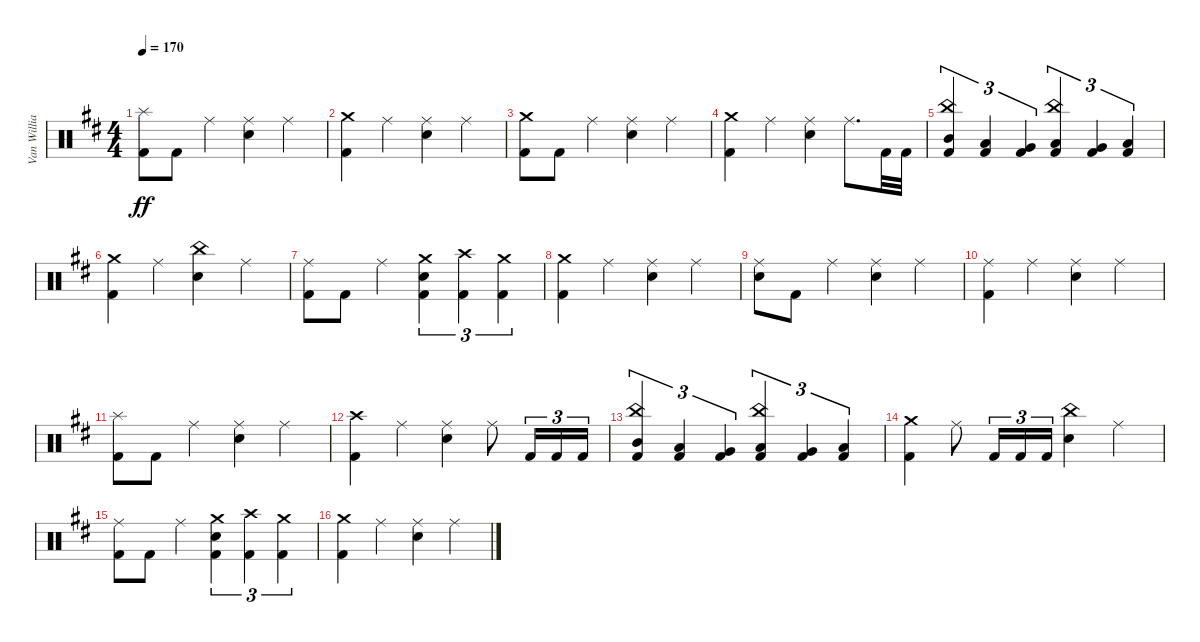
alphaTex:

\track ("Van Williams" "Van Willia") {instrument percussion}
\staff {score}
\articulation defaults
\ts (4 4)
\tempo 170
\clef neutral
\ks d
("Splash (hit)" "Kick (hit) 2").8{dy ff} "Kick (hit) 2".8 "Ride (middle)".4 ("Ride (middle)" "Electric Snare (hit)").4 "Ride (middle)".4 |
("Crash medium (hit)" "Kick (hit) 2").4 "Ride (middle)".4 ("Ride (middle)" "Electric Snare (hit)").4 "Ride (middle)".4 |
("Crash medium (hit)" "Kick (hit) 2").8 "Kick (hit) 2".8 "Ride (middle)".4 ("Ride (middle)" "Electric Snare (hit)").4 "Ride (middle)".4 |
("Crash medium (hit)" "Kick (hit) 2").4 "Ride (middle)".4 ("Ride (middle)" "Electric Snare (hit)").4 "Ride (middle)".8{d} "Kick (hit) 2".32 "Kick (hit) 2".32 |
("China (hit)" "Mid Tom (hit)" "Kick (hit) 2").4{tu (3 2)} ("Low Tom (hit)" "Kick (hit) 2").4{tu (3 2)} ("Very Low Tom (hit)" "Kick (hit) 2").4{tu (3 2)} ("China (hit)" "Low Tom (hit)" "Kick (hit) 2").4{tu (3 2)} ("Very Low Tom (hit)" "Kick (hit) 2").4{tu (3 2)} ("Low Floor Tom (hit)" "Kick (hit) 2").4{tu (3 2)} |
("Crash medium (hit)" "Kick (hit) 2").4 "Ride (middle)".4 ("China (hit)" "Electric Snare (hit)").4 "Ride (middle)".4 |
("Ride (middle)" "Kick (hit) 2").8 "Kick (hit) 2".8 "Ride (middle)".4 ("Crash medium (hit)" "Electric Snare (hit)" "Kick (hit) 2").4{tu (3 2)} ("Crash high (hit)" "Kick (hit) 2").4{tu (3 2)} ("Crash medium (hit)" "Kick (hit) 2").4{tu (3 2)} |
("Crash medium (hit)" "Kick (hit) 2").4 "Ride (middle)".4 ("Ride (middle)" "Electric Snare (hit)").4 "Ride (middle)".4 |
("Ride (middle)" "Electric Snare (hit)").8 "Kick (hit) 2".8 "Ride (middle)".4 ("Ride (middle)" "Electric Snare (hit)").4 "Ride (middle)".4 |
("Ride (middle)" "Kick (hit) 2").4 "Ride (middle)".4 ("Ride (middle)" "Electric Snare (hit)").4 "Ride (middle)".4 |
("Splash (hit)" "Kick (hit) 2").8 "Kick (hit) 2".8 "Ride (middle)".4 ("Ride (middle)" "Electric Snare (hit)").4 "Ride (middle)".4 |
("Crash high (hit)" "Kick (hit) 2").4 "Ride (middle)".4 ("Ride (middle)" "Electric Snare (hit)").4 "Ride (middle)".8 "Kick (hit) 2".16{tu (3 2)} "Kick (hit) 2".16{tu (3 2)} "Kick (hit) 2".16{tu (3 2)} |
("China (hit)" "Mid Tom (hit)" "Kick (hit) 2").4{tu (3 2)} ("Low Tom (hit)" "Kick (hit) 2").4{tu (3 2)} ("Very Low Tom (hit)" "Kick (hit) 2").4{tu (3 2)} ("China (hit)" "Low Tom (hit)" "Kick (hit) 2").4{tu (3 2)} ("Very Low Tom (hit)" "Kick (hit) 2").4{tu (3 2)} ("Low Floor Tom (hit)" "Kick (hit) 2").4{tu (3 2)} |
("Crash medium (hit)" "Kick (hit) 2").4 "Ride (middle)".8 "Kick (hit) 2".16{tu (3 2)} "Kick (hit) 2".16{tu (3 2)} "Kick (hit) 2".16{tu (3 2)} ("China (hit)" "Electric Snare (hit)").4 "Ride (middle)".4 |
("Ride (middle)" "Kick (hit) 2").8 "Kick (hit) 2".8 "Ride (middle)".4 ("Crash medium (hit)" "Electric Snare (hit)" "Kick (hit) 2").4{tu (3 2)} ("Crash high (hit)" "Kick (hit) 2").4{tu (3 2)} ("Crash medium (hit)" "Kick (hit) 2").4{tu (3 2)} |
("Crash medium (hit)" "Kick (hit) 2").4 "Ride (middle)".4 ("Ride (middle)" "Electric Snare (hit)").4 "Ride (middle)".4
